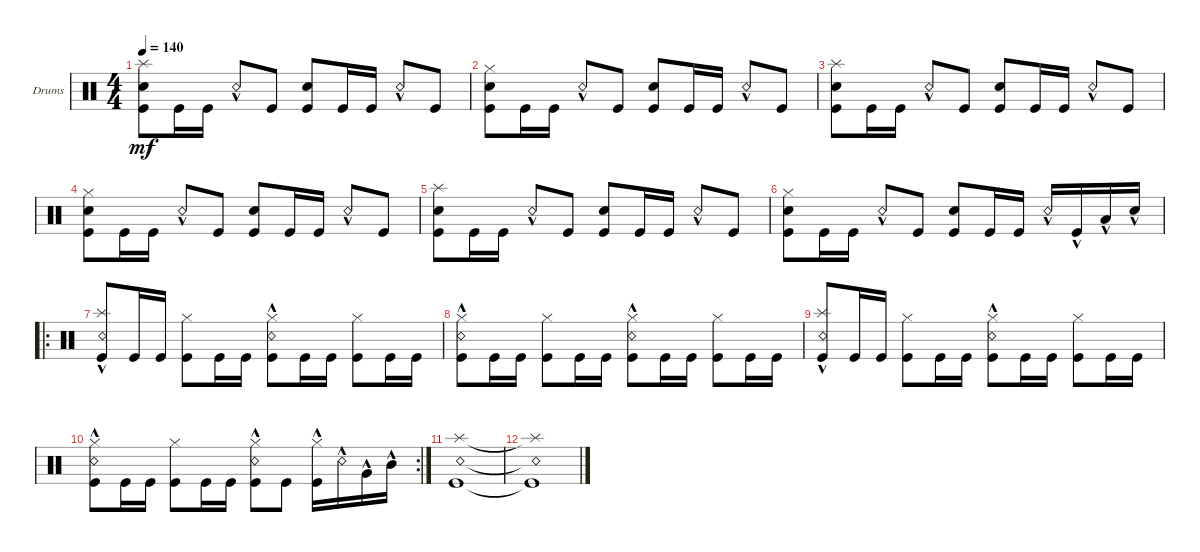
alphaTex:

\bracketExtendMode groupsimilarinstruments
\firstSystemTrackNameOrientation horizontal
\otherSystemsTrackNameOrientation horizontal
\track ("БАРАБАНЫ" "Drums") {solo instrument percussion}
\staff {score}
\articulation defaults
\ts (4 4)
\tempo 140
\clef neutral
\ks c
("Kick (hit)" "Snare (hit) 2" "Splash (hit)").8{dy mf} "Kick (hit)".16 "Kick (hit)".16 "Snare (rim shot)"{hac}.8 "Kick (hit)".8 ("Kick (hit)" "Snare (hit) 2").8 "Kick (hit)".16 "Kick (hit)".16 "Snare (rim shot)"{hac}.8 "Kick (hit)".8 |
("Kick (hit)" "Snare (hit) 2" "Hi-Hat (closed)").8 "Kick (hit)".16 "Kick (hit)".16 "Snare (rim shot)"{hac}.8 "Kick (hit)".8 ("Kick (hit)" "Snare (hit) 2").8 "Kick (hit)".16 "Kick (hit)".16 "Snare (rim shot)"{hac}.8 "Kick (hit)".8 |
("Kick (hit)" "Snare (hit) 2" "Splash (hit)").8 "Kick (hit)".16 "Kick (hit)".16 "Snare (rim shot)"{hac}.8 "Kick (hit)".8 ("Kick (hit)" "Snare (hit) 2").8 "Kick (hit)".16 "Kick (hit)".16 "Snare (rim shot)"{hac}.8 "Kick (hit)".8 |
("Kick (hit)" "Snare (hit) 2" "Hi-Hat (closed)").8 "Kick (hit)".16 "Kick (hit)".16 "Snare (rim shot)"{hac}.8 "Kick (hit)".8 ("Kick (hit)" "Snare (hit) 2").8 "Kick (hit)".16 "Kick (hit)".16 "Snare (rim shot)"{hac}.8 "Kick (hit)".8 |
("Kick (hit)" "Snare (hit) 2" "Splash (hit)").8 "Kick (hit)".16 "Kick (hit)".16 "Snare (rim shot)"{hac}.8 "Kick (hit)".8 ("Kick (hit)" "Snare (hit) 2").8 "Kick (hit)".16 "Kick (hit)".16 "Snare (rim shot)"{hac}.8 "Kick (hit)".8 |
("Kick (hit)" "Snare (hit) 2" "Hi-Hat (closed)").8 "Kick (hit)".16 "Kick (hit)".16 "Snare (rim shot)"{hac}.8 "Kick (hit)".8 ("Kick (hit)" "Snare (hit) 2").8 "Kick (hit)".16 "Kick (hit)".16 "Snare (rim shot)"{hac}.16 "Kick (hit)"{hac}.16 "Low Tom (hit)"{hac}.16 "Snare (hit) 2"{hac}.16 |
\ro
("Kick (hit)" "Snare (rim shot)"{hac} "Splash (hit)").8 "Kick (hit)".16 "Kick (hit)".16 ("Kick (hit)" "Hi-Hat (closed)").8 "Kick (hit)".16 "Kick (hit)".16 ("Kick (hit)" "Snare (rim shot)"{hac} "Hi-Hat (closed)").8 "Kick (hit)".16 "Kick (hit)".16 ("Kick (hit)" "Hi-Hat (closed)").8 "Kick (hit)".16 "Kick (hit)".16 |
("Kick (hit)" "Snare (rim shot)"{hac} "Hi-Hat (closed)").8 "Kick (hit)".16 "Kick (hit)".16 ("Kick (hit)" "Hi-Hat (closed)").8 "Kick (hit)".16 "Kick (hit)".16 ("Kick (hit)" "Snare (rim shot)"{hac} "Hi-Hat (closed)").8 "Kick (hit)".16 "Kick (hit)".16 ("Kick (hit)" "Hi-Hat (closed)").8 "Kick (hit)".16 "Kick (hit)".16 |
("Kick (hit)" "Snare (rim shot)"{hac} "Splash (hit)").8 "Kick (hit)".16 "Kick (hit)".16 ("Kick (hit)" "Hi-Hat (closed)").8 "Kick (hit)".16 "Kick (hit)".16 ("Kick (hit)" "Snare (rim shot)"{hac} "Hi-Hat (closed)").8 "Kick (hit)".16 "Kick (hit)".16 ("Kick (hit)" "Hi-Hat (closed)").8 "Kick (hit)".16 "Kick (hit)".16 |
\rc 2
("Kick (hit)" "Snare (rim shot)"{hac} "Hi-Hat (closed)").8 "Kick (hit)".16 "Kick (hit)".16 ("Kick (hit)" "Hi-Hat (closed)").8 "Kick (hit)".16 "Kick (hit)".16 ("Kick (hit)" "Snare (rim shot)"{hac} "Hi-Hat (closed)").8 "Kick (hit)".8 ("Kick (hit)"{hac} "Hi-Hat (closed)"{hac}).16 "Snare (rim shot)"{hac}.16 "Very Low Tom (hit)"{hac}.16 "Mid Tom (hit)"{hac}.16 |
("Kick (hit)" "Snare (rim shot)" "Splash (hit)").1 |
("Kick (hit)"{t} "Snare (rim shot)"{t} "Splash (hit)"{t}).1
